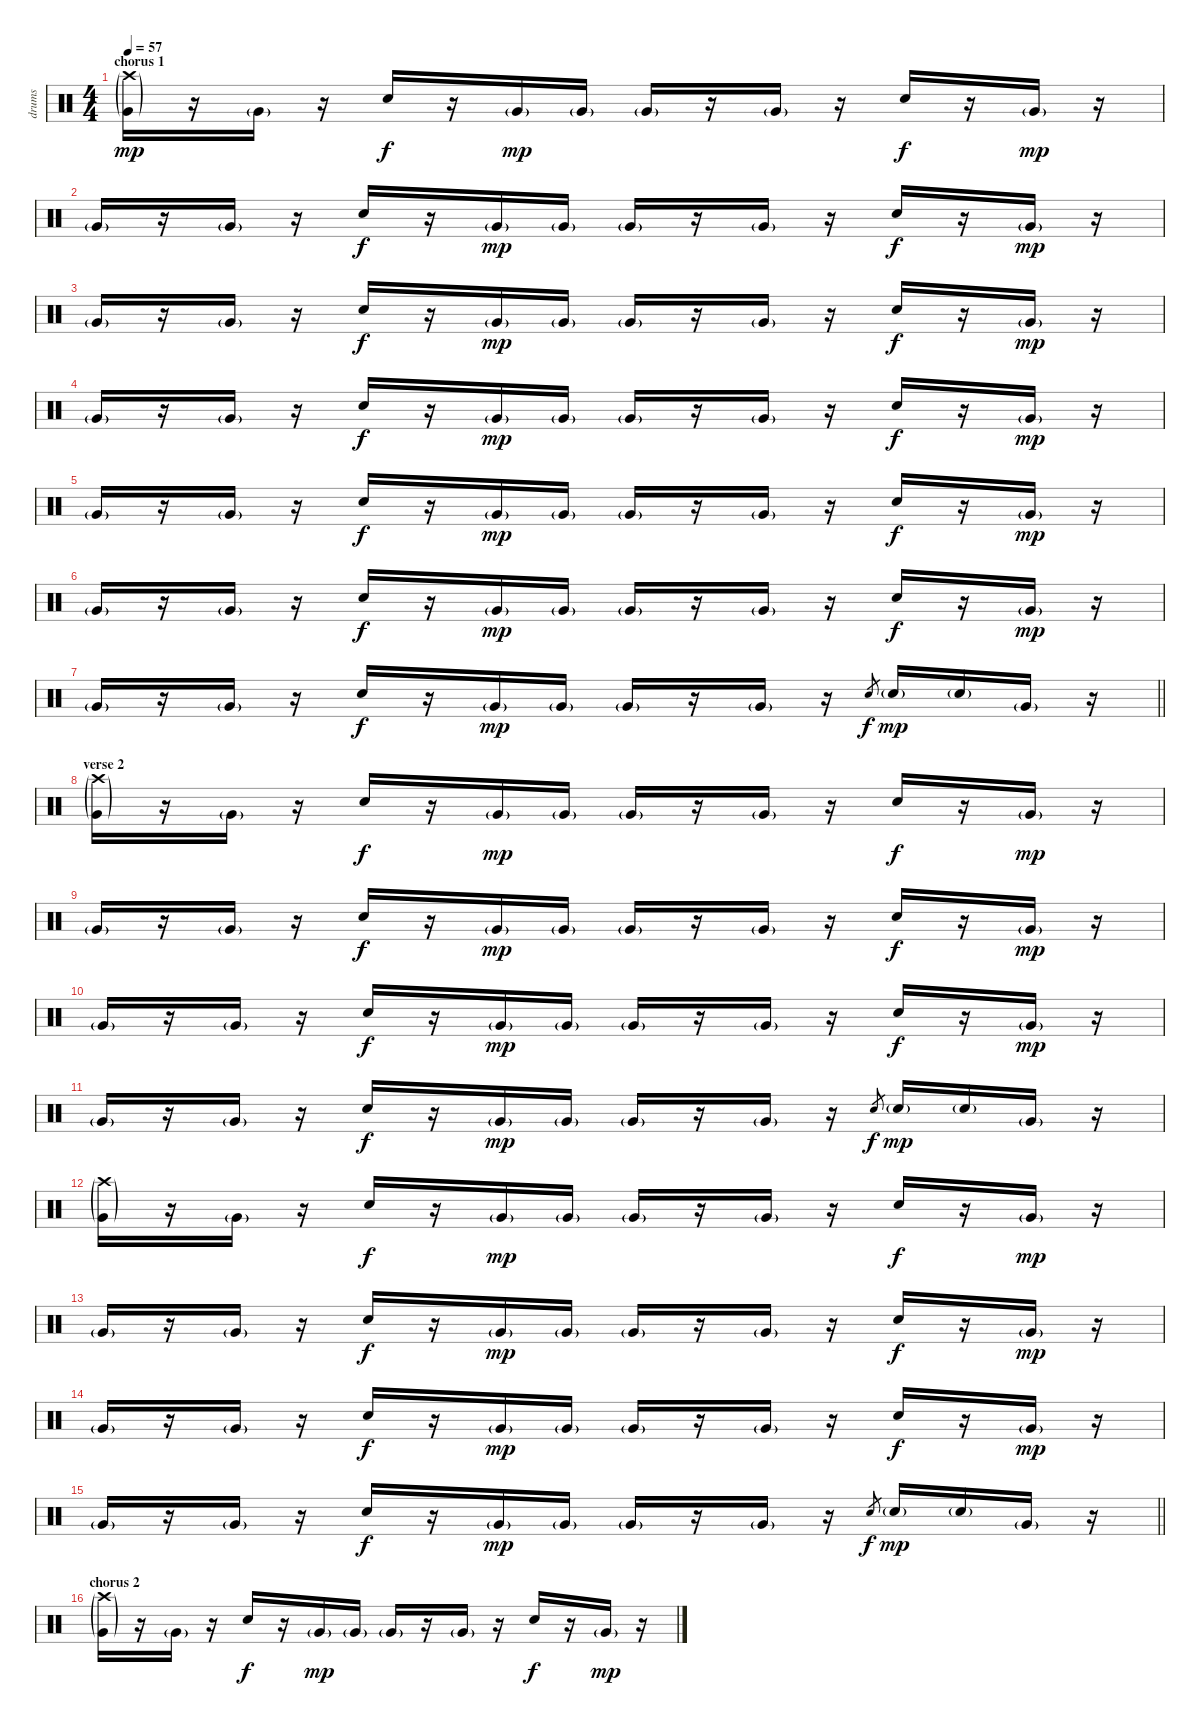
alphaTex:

\track ("drums" "drums") {instrument percussion}
\staff {score}
\articulation defaults
\ts (4 4)
\section ("" "chorus 1")
\tempo 57
\clef neutral
\ks c
("Very Low Tom (hit)"{g} "Crash high (hit)"{g}).16{dy mp} r.16 "Very Low Tom (hit)"{g}.16 r.16 "Electric Snare (hit)".16{dy f} r.16 "Very Low Tom (hit)"{g}.16{dy mp} "Very Low Tom (hit)"{g}.16 "Very Low Tom (hit)"{g}.16 r.16 "Very Low Tom (hit)"{g}.16 r.16 "Electric Snare (hit)".16{dy f} r.16 "Very Low Tom (hit)"{g}.16{dy mp} r.16 |
"Very Low Tom (hit)"{g}.16 r.16 "Very Low Tom (hit)"{g}.16 r.16 "Electric Snare (hit)".16{dy f} r.16 "Very Low Tom (hit)"{g}.16{dy mp} "Very Low Tom (hit)"{g}.16 "Very Low Tom (hit)"{g}.16 r.16 "Very Low Tom (hit)"{g}.16 r.16 "Electric Snare (hit)".16{dy f} r.16 "Very Low Tom (hit)"{g}.16{dy mp} r.16 |
"Very Low Tom (hit)"{g}.16 r.16 "Very Low Tom (hit)"{g}.16 r.16 "Electric Snare (hit)".16{dy f} r.16 "Very Low Tom (hit)"{g}.16{dy mp} "Very Low Tom (hit)"{g}.16 "Very Low Tom (hit)"{g}.16 r.16 "Very Low Tom (hit)"{g}.16 r.16 "Electric Snare (hit)".16{dy f} r.16 "Very Low Tom (hit)"{g}.16{dy mp} r.16 |
"Very Low Tom (hit)"{g}.16 r.16 "Very Low Tom (hit)"{g}.16 r.16 "Electric Snare (hit)".16{dy f} r.16 "Very Low Tom (hit)"{g}.16{dy mp} "Very Low Tom (hit)"{g}.16 "Very Low Tom (hit)"{g}.16 r.16 "Very Low Tom (hit)"{g}.16 r.16 "Electric Snare (hit)".16{dy f} r.16 "Very Low Tom (hit)"{g}.16{dy mp} r.16 |
"Very Low Tom (hit)"{g}.16 r.16 "Very Low Tom (hit)"{g}.16 r.16 "Electric Snare (hit)".16{dy f} r.16 "Very Low Tom (hit)"{g}.16{dy mp} "Very Low Tom (hit)"{g}.16 "Very Low Tom (hit)"{g}.16 r.16 "Very Low Tom (hit)"{g}.16 r.16 "Electric Snare (hit)".16{dy f} r.16 "Very Low Tom (hit)"{g}.16{dy mp} r.16 |
"Very Low Tom (hit)"{g}.16 r.16 "Very Low Tom (hit)"{g}.16 r.16 "Electric Snare (hit)".16{dy f} r.16 "Very Low Tom (hit)"{g}.16{dy mp} "Very Low Tom (hit)"{g}.16 "Very Low Tom (hit)"{g}.16 r.16 "Very Low Tom (hit)"{g}.16 r.16 "Electric Snare (hit)".16{dy f} r.16 "Very Low Tom (hit)"{g}.16{dy mp} r.16 |
\barLineRight lightlight "Very Low Tom (hit)"{g}.16
r.16 "Very Low Tom (hit)"{g}.16 r.16 "Electric Snare (hit)".16{dy f} r.16 "Very Low Tom (hit)"{g}.16{dy mp} "Very Low Tom (hit)"{g}.16 "Very Low Tom (hit)"{g}.16 r.16 "Very Low Tom (hit)"{g}.16 r.16 "Electric Snare (hit)".8{gr dy f} "Electric Snare (hit)"{g}.16{dy mp} "Electric Snare (hit)"{g}.16 "Very Low Tom (hit)"{g}.16 r.16 |
\section ("" "verse 2")
("Very Low Tom (hit)"{g} "Crash high (hit)"{g}).16 r.16 "Very Low Tom (hit)"{g}.16 r.16 "Electric Snare (hit)".16{dy f} r.16 "Very Low Tom (hit)"{g}.16{dy mp} "Very Low Tom (hit)"{g}.16 "Very Low Tom (hit)"{g}.16 r.16 "Very Low Tom (hit)"{g}.16 r.16 "Electric Snare (hit)".16{dy f} r.16 "Very Low Tom (hit)"{g}.16{dy mp} r.16 |
"Very Low Tom (hit)"{g}.16 r.16 "Very Low Tom (hit)"{g}.16 r.16 "Electric Snare (hit)".16{dy f} r.16 "Very Low Tom (hit)"{g}.16{dy mp} "Very Low Tom (hit)"{g}.16 "Very Low Tom (hit)"{g}.16 r.16 "Very Low Tom (hit)"{g}.16 r.16 "Electric Snare (hit)".16{dy f} r.16 "Very Low Tom (hit)"{g}.16{dy mp} r.16 |
"Very Low Tom (hit)"{g}.16 r.16 "Very Low Tom (hit)"{g}.16 r.16 "Electric Snare (hit)".16{dy f} r.16 "Very Low Tom (hit)"{g}.16{dy mp} "Very Low Tom (hit)"{g}.16 "Very Low Tom (hit)"{g}.16 r.16 "Very Low Tom (hit)"{g}.16 r.16 "Electric Snare (hit)".16{dy f} r.16 "Very Low Tom (hit)"{g}.16{dy mp} r.16 |
"Very Low Tom (hit)"{g}.16 r.16 "Very Low Tom (hit)"{g}.16 r.16 "Electric Snare (hit)".16{dy f} r.16 "Very Low Tom (hit)"{g}.16{dy mp} "Very Low Tom (hit)"{g}.16 "Very Low Tom (hit)"{g}.16 r.16 "Very Low Tom (hit)"{g}.16 r.16 "Electric Snare (hit)".8{gr dy f} "Electric Snare (hit)"{g}.16{dy mp} "Electric Snare (hit)"{g}.16 "Very Low Tom (hit)"{g}.16 r.16 |
("Very Low Tom (hit)"{g} "Crash high (hit)"{g}).16 r.16 "Very Low Tom (hit)"{g}.16 r.16 "Electric Snare (hit)".16{dy f} r.16 "Very Low Tom (hit)"{g}.16{dy mp} "Very Low Tom (hit)"{g}.16 "Very Low Tom (hit)"{g}.16 r.16 "Very Low Tom (hit)"{g}.16 r.16 "Electric Snare (hit)".16{dy f} r.16 "Very Low Tom (hit)"{g}.16{dy mp} r.16 |
"Very Low Tom (hit)"{g}.16 r.16 "Very Low Tom (hit)"{g}.16 r.16 "Electric Snare (hit)".16{dy f} r.16 "Very Low Tom (hit)"{g}.16{dy mp} "Very Low Tom (hit)"{g}.16 "Very Low Tom (hit)"{g}.16 r.16 "Very Low Tom (hit)"{g}.16 r.16 "Electric Snare (hit)".16{dy f} r.16 "Very Low Tom (hit)"{g}.16{dy mp} r.16 |
"Very Low Tom (hit)"{g}.16 r.16 "Very Low Tom (hit)"{g}.16 r.16 "Electric Snare (hit)".16{dy f} r.16 "Very Low Tom (hit)"{g}.16{dy mp} "Very Low Tom (hit)"{g}.16 "Very Low Tom (hit)"{g}.16 r.16 "Very Low Tom (hit)"{g}.16 r.16 "Electric Snare (hit)".16{dy f} r.16 "Very Low Tom (hit)"{g}.16{dy mp} r.16 |
\barLineRight lightlight "Very Low Tom (hit)"{g}.16
r.16 "Very Low Tom (hit)"{g}.16 r.16 "Electric Snare (hit)".16{dy f} r.16 "Very Low Tom (hit)"{g}.16{dy mp} "Very Low Tom (hit)"{g}.16 "Very Low Tom (hit)"{g}.16 r.16 "Very Low Tom (hit)"{g}.16 r.16 "Electric Snare (hit)".8{gr dy f} "Electric Snare (hit)"{g}.16{dy mp} "Electric Snare (hit)"{g}.16 "Very Low Tom (hit)"{g}.16 r.16 |
\section ("" "chorus 2")
("Very Low Tom (hit)"{g} "Crash high (hit)"{g}).16 r.16 "Very Low Tom (hit)"{g}.16 r.16 "Electric Snare (hit)".16{dy f} r.16 "Very Low Tom (hit)"{g}.16{dy mp} "Very Low Tom (hit)"{g}.16 "Very Low Tom (hit)"{g}.16 r.16 "Very Low Tom (hit)"{g}.16 r.16 "Electric Snare (hit)".16{dy f} r.16 "Very Low Tom (hit)"{g}.16{dy mp} r.16
